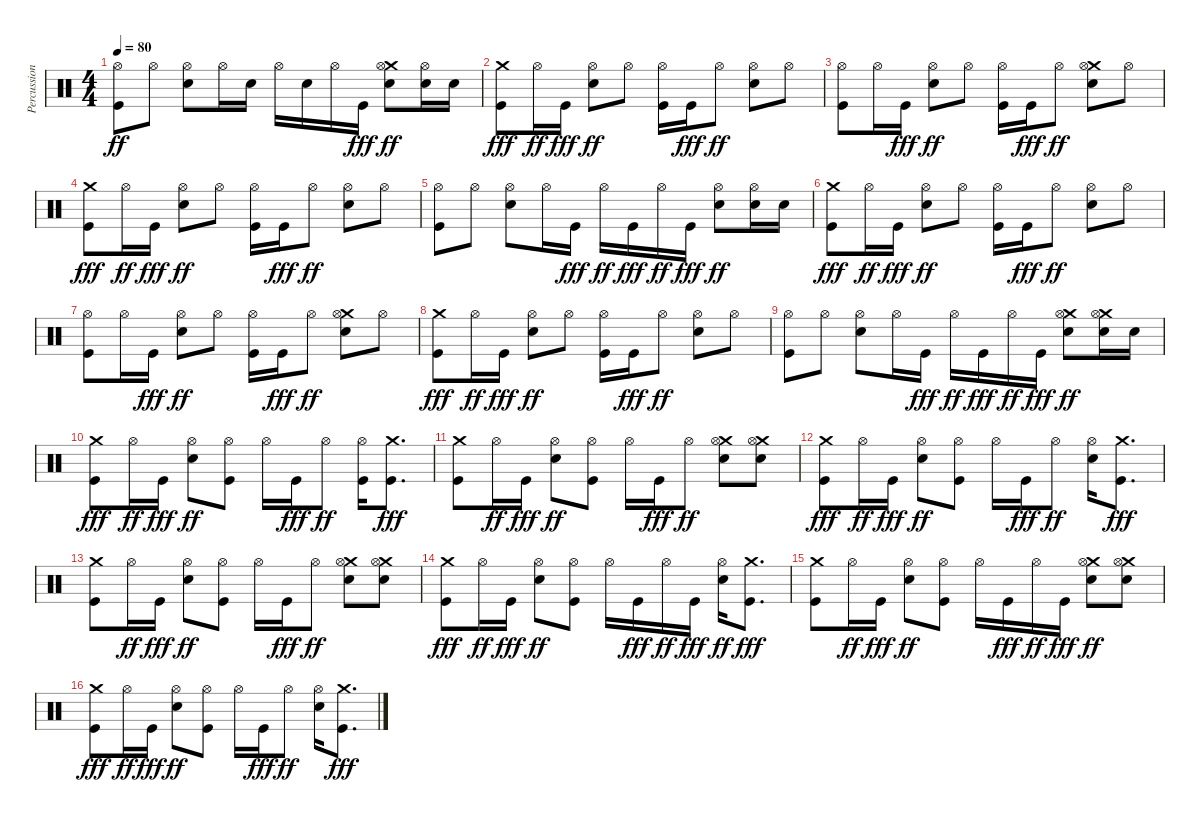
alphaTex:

\track ("Percussion" "Percussion") {instrument percussion}
\staff {score}
\articulation defaults
\ts (4 4)
\tempo 80
\clef neutral
\ks c
("Kick (hit)" "Hi-Hat (open)").8{dy ff} "Hi-Hat (open)".8 ("Snare (hit) 2" "Hi-Hat (open)").8 "Hi-Hat (open)".16 "Snare (hit) 2".16 "Hi-Hat (open)".16 "Snare (hit) 2".16 "Hi-Hat (open)".16 "Kick (hit)".16{dy fff} ("Snare (hit) 2" "Crash medium (hit)" "Hi-Hat (open)").8{dy ff} ("Snare (hit) 2" "Hi-Hat (open)").16 "Snare (hit) 2".16 |
("Kick (hit)" "Crash medium (hit)").8{dy fff} "Hi-Hat (open)".16{dy ff} "Kick (hit)".16{dy fff} ("Snare (hit) 2" "Hi-Hat (open)").8{dy ff} "Hi-Hat (open)".8 ("Kick (hit)" "Hi-Hat (open)").16 "Kick (hit)".16{dy fff} "Hi-Hat (open)".8{dy ff} ("Snare (hit) 2" "Hi-Hat (open)").8 "Hi-Hat (open)".8 |
("Kick (hit)" "Hi-Hat (open)").8 "Hi-Hat (open)".16 "Kick (hit)".16{dy fff} ("Snare (hit) 2" "Hi-Hat (open)").8{dy ff} "Hi-Hat (open)".8 ("Kick (hit)" "Hi-Hat (open)").16 "Kick (hit)".16{dy fff} "Hi-Hat (open)".8{dy ff} ("Snare (hit) 2" "Crash medium (hit)" "Hi-Hat (open)").8 "Hi-Hat (open)".8 |
("Kick (hit)" "Crash medium (hit)").8{dy fff} "Hi-Hat (open)".16{dy ff} "Kick (hit)".16{dy fff} ("Snare (hit) 2" "Hi-Hat (open)").8{dy ff} "Hi-Hat (open)".8 ("Kick (hit)" "Hi-Hat (open)").16 "Kick (hit)".16{dy fff} "Hi-Hat (open)".8{dy ff} ("Snare (hit) 2" "Hi-Hat (open)").8 "Hi-Hat (open)".8 |
("Kick (hit)" "Hi-Hat (open)").8 "Hi-Hat (open)".8 ("Snare (hit) 2" "Hi-Hat (open)").8 "Hi-Hat (open)".16 "Kick (hit)".16{dy fff} "Hi-Hat (open)".16{dy ff} "Kick (hit)".16{dy fff} "Hi-Hat (open)".16{dy ff} "Kick (hit)".16{dy fff} ("Snare (hit) 2" "Hi-Hat (open)").8{dy ff} ("Snare (hit) 2" "Hi-Hat (open)").16 "Snare (hit) 2".16 |
("Kick (hit)" "Crash medium (hit)").8{dy fff} "Hi-Hat (open)".16{dy ff} "Kick (hit)".16{dy fff} ("Snare (hit) 2" "Hi-Hat (open)").8{dy ff} "Hi-Hat (open)".8 ("Kick (hit)" "Hi-Hat (open)").16 "Kick (hit)".16{dy fff} "Hi-Hat (open)".8{dy ff} ("Snare (hit) 2" "Hi-Hat (open)").8 "Hi-Hat (open)".8 |
("Kick (hit)" "Hi-Hat (open)").8 "Hi-Hat (open)".16 "Kick (hit)".16{dy fff} ("Snare (hit) 2" "Hi-Hat (open)").8{dy ff} "Hi-Hat (open)".8 ("Kick (hit)" "Hi-Hat (open)").16 "Kick (hit)".16{dy fff} "Hi-Hat (open)".8{dy ff} ("Snare (hit) 2" "Crash medium (hit)" "Hi-Hat (open)").8 "Hi-Hat (open)".8 |
("Kick (hit)" "Crash medium (hit)").8{dy fff} "Hi-Hat (open)".16{dy ff} "Kick (hit)".16{dy fff} ("Snare (hit) 2" "Hi-Hat (open)").8{dy ff} "Hi-Hat (open)".8 ("Kick (hit)" "Hi-Hat (open)").16 "Kick (hit)".16{dy fff} "Hi-Hat (open)".8{dy ff} ("Snare (hit) 2" "Hi-Hat (open)").8 "Hi-Hat (open)".8 |
("Kick (hit)" "Hi-Hat (open)").8 "Hi-Hat (open)".8 ("Snare (hit) 2" "Hi-Hat (open)").8 "Hi-Hat (open)".16 "Kick (hit)".16{dy fff} "Hi-Hat (open)".16{dy ff} "Kick (hit)".16{dy fff} "Hi-Hat (open)".16{dy ff} "Kick (hit)".16{dy fff} ("Snare (hit) 2" "Crash medium (hit)" "Hi-Hat (open)").8{dy ff} ("Snare (hit) 2" "Crash medium (hit)" "Hi-Hat (open)").16 "Snare (hit) 2".16 |
("Kick (hit)" "Crash medium (hit)").8{dy fff} "Hi-Hat (open)".16{dy ff} "Kick (hit)".16{dy fff} ("Snare (hit) 2" "Hi-Hat (open)").8{dy ff} ("Kick (hit)" "Hi-Hat (open)").8 "Hi-Hat (open)".16 "Kick (hit)".16{dy fff} "Hi-Hat (open)".8{dy ff} ("Kick (hit)" "Hi-Hat (open)").16 ("Kick (hit)" "Crash medium (hit)").8{d dy fff} |
("Kick (hit)" "Crash medium (hit)").8 "Hi-Hat (open)".16{dy ff} "Kick (hit)".16{dy fff} ("Snare (hit) 2" "Hi-Hat (open)").8{dy ff} ("Kick (hit)" "Hi-Hat (open)").8 "Hi-Hat (open)".16 "Kick (hit)".16{dy fff} "Hi-Hat (open)".8{dy ff} ("Snare (hit) 2" "Crash medium (hit)" "Hi-Hat (open)").8 ("Snare (hit) 2" "Crash medium (hit)" "Hi-Hat (open)").8 |
("Kick (hit)" "Crash medium (hit)").8{dy fff} "Hi-Hat (open)".16{dy ff} "Kick (hit)".16{dy fff} ("Snare (hit) 2" "Hi-Hat (open)").8{dy ff} ("Kick (hit)" "Hi-Hat (open)").8 "Hi-Hat (open)".16 "Kick (hit)".16{dy fff} "Hi-Hat (open)".8{dy ff} ("Snare (hit) 2" "Hi-Hat (open)").16 ("Kick (hit)" "Crash medium (hit)").8{d dy fff} |
("Kick (hit)" "Crash medium (hit)").8 "Hi-Hat (open)".16{dy ff} "Kick (hit)".16{dy fff} ("Snare (hit) 2" "Hi-Hat (open)").8{dy ff} ("Kick (hit)" "Hi-Hat (open)").8 "Hi-Hat (open)".16 "Kick (hit)".16{dy fff} "Hi-Hat (open)".8{dy ff} ("Snare (hit) 2" "Crash medium (hit)" "Hi-Hat (open)").8 ("Snare (hit) 2" "Crash medium (hit)" "Hi-Hat (open)").8 |
("Kick (hit)" "Crash medium (hit)").8{dy fff} "Hi-Hat (open)".16{dy ff} "Kick (hit)".16{dy fff} ("Snare (hit) 2" "Hi-Hat (open)").8{dy ff} ("Kick (hit)" "Hi-Hat (open)").8 "Hi-Hat (open)".16 "Kick (hit)".16{dy fff} "Hi-Hat (open)".16{dy ff} "Kick (hit)".16{dy fff} ("Snare (hit) 2" "Hi-Hat (open)").16{dy ff} ("Kick (hit)" "Crash medium (hit)").8{d dy fff} |
("Kick (hit)" "Crash medium (hit)").8 "Hi-Hat (open)".16{dy ff} "Kick (hit)".16{dy fff} ("Snare (hit) 2" "Hi-Hat (open)").8{dy ff} ("Kick (hit)" "Hi-Hat (open)").8 "Hi-Hat (open)".16 "Kick (hit)".16{dy fff} "Hi-Hat (open)".16{dy ff} "Kick (hit)".16{dy fff} ("Snare (hit) 2" "Crash medium (hit)" "Hi-Hat (open)").8{dy ff} ("Snare (hit) 2" "Crash medium (hit)" "Hi-Hat (open)").8 |
("Kick (hit)" "Crash medium (hit)").8{dy fff} "Hi-Hat (open)".16{dy ff} "Kick (hit)".16{dy fff} ("Snare (hit) 2" "Hi-Hat (open)").8{dy ff} ("Kick (hit)" "Hi-Hat (open)").8 "Hi-Hat (open)".16 "Kick (hit)".16{dy fff} "Hi-Hat (open)".8{dy ff} ("Snare (hit) 2" "Hi-Hat (open)").16 ("Kick (hit)" "Crash medium (hit)").8{d dy fff}
